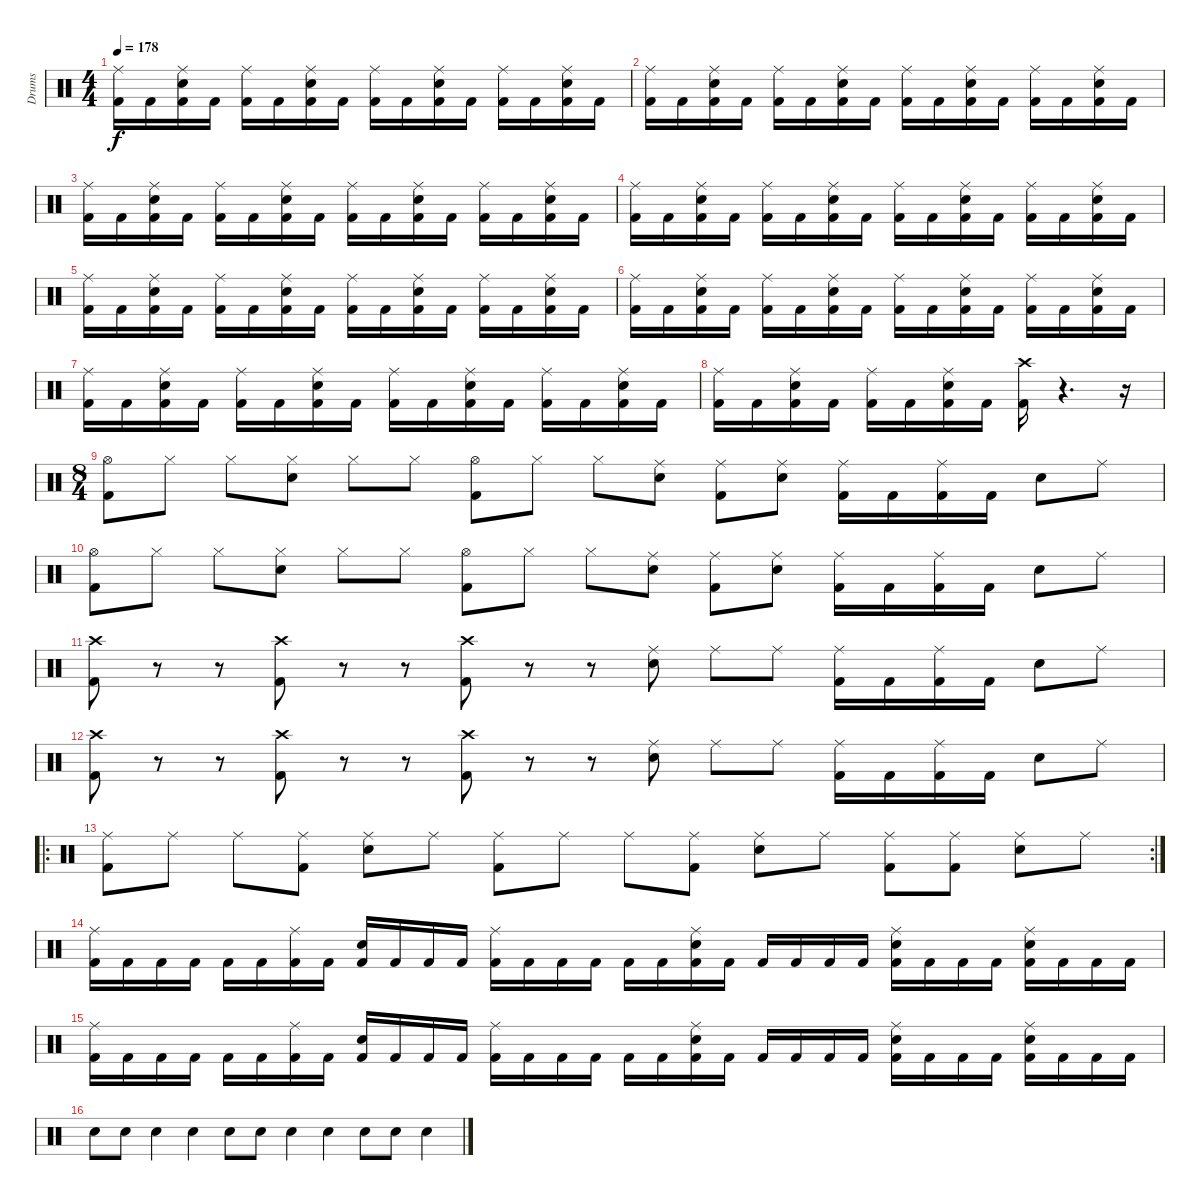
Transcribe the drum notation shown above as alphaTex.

\track ("Drums" "Drums") {instrument percussion}
\staff {score}
\articulation defaults
\ts (4 4)
\tempo 178
\clef neutral
\ks c
("Ride (middle)" "Kick (hit) 2").16{dy f} "Kick (hit) 2".16 ("Ride (middle)" "Snare (hit) 2" "Kick (hit) 2").16 "Kick (hit) 2".16 ("Ride (middle)" "Kick (hit) 2").16 "Kick (hit) 2".16 ("Ride (middle)" "Snare (hit) 2" "Kick (hit) 2").16 "Kick (hit) 2".16 ("Ride (middle)" "Kick (hit) 2").16 "Kick (hit) 2".16 ("Ride (middle)" "Snare (hit) 2" "Kick (hit) 2").16 "Kick (hit) 2".16 ("Ride (middle)" "Kick (hit) 2").16 "Kick (hit) 2".16 ("Ride (middle)" "Snare (hit) 2" "Kick (hit) 2").16 "Kick (hit) 2".16 |
("Ride (middle)" "Kick (hit) 2").16 "Kick (hit) 2".16 ("Ride (middle)" "Snare (hit) 2" "Kick (hit) 2").16 "Kick (hit) 2".16 ("Ride (middle)" "Kick (hit) 2").16 "Kick (hit) 2".16 ("Ride (middle)" "Snare (hit) 2" "Kick (hit) 2").16 "Kick (hit) 2".16 ("Ride (middle)" "Kick (hit) 2").16 "Kick (hit) 2".16 ("Ride (middle)" "Snare (hit) 2" "Kick (hit) 2").16 "Kick (hit) 2".16 ("Ride (middle)" "Kick (hit) 2").16 "Kick (hit) 2".16 ("Ride (middle)" "Snare (hit) 2" "Kick (hit) 2").16 "Kick (hit) 2".16 |
("Ride (middle)" "Kick (hit) 2").16 "Kick (hit) 2".16 ("Ride (middle)" "Snare (hit) 2" "Kick (hit) 2").16 "Kick (hit) 2".16 ("Ride (middle)" "Kick (hit) 2").16 "Kick (hit) 2".16 ("Ride (middle)" "Snare (hit) 2" "Kick (hit) 2").16 "Kick (hit) 2".16 ("Ride (middle)" "Kick (hit) 2").16 "Kick (hit) 2".16 ("Ride (middle)" "Snare (hit) 2" "Kick (hit) 2").16 "Kick (hit) 2".16 ("Ride (middle)" "Kick (hit) 2").16 "Kick (hit) 2".16 ("Ride (middle)" "Snare (hit) 2" "Kick (hit) 2").16 "Kick (hit) 2".16 |
("Ride (middle)" "Kick (hit) 2").16 "Kick (hit) 2".16 ("Ride (middle)" "Snare (hit) 2" "Kick (hit) 2").16 "Kick (hit) 2".16 ("Ride (middle)" "Kick (hit) 2").16 "Kick (hit) 2".16 ("Ride (middle)" "Snare (hit) 2" "Kick (hit) 2").16 "Kick (hit) 2".16 ("Ride (middle)" "Kick (hit) 2").16 "Kick (hit) 2".16 ("Ride (middle)" "Snare (hit) 2" "Kick (hit) 2").16 "Kick (hit) 2".16 ("Ride (middle)" "Kick (hit) 2").16 "Kick (hit) 2".16 ("Ride (middle)" "Snare (hit) 2" "Kick (hit) 2").16 "Kick (hit) 2".16 |
("Ride (middle)" "Kick (hit) 2").16 "Kick (hit) 2".16 ("Ride (middle)" "Snare (hit) 2" "Kick (hit) 2").16 "Kick (hit) 2".16 ("Ride (middle)" "Kick (hit) 2").16 "Kick (hit) 2".16 ("Ride (middle)" "Snare (hit) 2" "Kick (hit) 2").16 "Kick (hit) 2".16 ("Ride (middle)" "Kick (hit) 2").16 "Kick (hit) 2".16 ("Ride (middle)" "Snare (hit) 2" "Kick (hit) 2").16 "Kick (hit) 2".16 ("Ride (middle)" "Kick (hit) 2").16 "Kick (hit) 2".16 ("Ride (middle)" "Snare (hit) 2" "Kick (hit) 2").16 "Kick (hit) 2".16 |
("Ride (middle)" "Kick (hit) 2").16 "Kick (hit) 2".16 ("Ride (middle)" "Snare (hit) 2" "Kick (hit) 2").16 "Kick (hit) 2".16 ("Ride (middle)" "Kick (hit) 2").16 "Kick (hit) 2".16 ("Ride (middle)" "Snare (hit) 2" "Kick (hit) 2").16 "Kick (hit) 2".16 ("Ride (middle)" "Kick (hit) 2").16 "Kick (hit) 2".16 ("Ride (middle)" "Snare (hit) 2" "Kick (hit) 2").16 "Kick (hit) 2".16 ("Ride (middle)" "Kick (hit) 2").16 "Kick (hit) 2".16 ("Ride (middle)" "Snare (hit) 2" "Kick (hit) 2").16 "Kick (hit) 2".16 |
("Ride (middle)" "Kick (hit) 2").16 "Kick (hit) 2".16 ("Ride (middle)" "Snare (hit) 2" "Kick (hit) 2").16 "Kick (hit) 2".16 ("Ride (middle)" "Kick (hit) 2").16 "Kick (hit) 2".16 ("Ride (middle)" "Snare (hit) 2" "Kick (hit) 2").16 "Kick (hit) 2".16 ("Ride (middle)" "Kick (hit) 2").16 "Kick (hit) 2".16 ("Ride (middle)" "Snare (hit) 2" "Kick (hit) 2").16 "Kick (hit) 2".16 ("Ride (middle)" "Kick (hit) 2").16 "Kick (hit) 2".16 ("Ride (middle)" "Snare (hit) 2" "Kick (hit) 2").16 "Kick (hit) 2".16 |
("Ride (middle)" "Kick (hit) 2").16 "Kick (hit) 2".16 ("Ride (middle)" "Snare (hit) 2" "Kick (hit) 2").16 "Kick (hit) 2".16 ("Ride (middle)" "Kick (hit) 2").16 "Kick (hit) 2".16 ("Ride (middle)" "Snare (hit) 2" "Kick (hit) 2").16 "Kick (hit) 2".16 ("Crash high (hit)" "Kick (hit) 2").16 r.4{d} r.16 |
\ts (8 4)
("Hi-Hat (open)" "Kick (hit) 2").8 "Hi-Hat (closed)".8 "Hi-Hat (closed)".8 ("Hi-Hat (closed)" "Snare (hit) 2").8 "Hi-Hat (closed)".8 "Hi-Hat (closed)".8 ("Hi-Hat (open)" "Kick (hit) 2").8 "Hi-Hat (closed)".8 "Hi-Hat (closed)".8 ("Ride (middle)" "Snare (hit) 2").8 ("Ride (middle)" "Kick (hit) 2").8 ("Ride (middle)" "Snare (hit) 2").8 ("Ride (middle)" "Kick (hit) 2").16 "Kick (hit) 2".16 ("Ride (middle)" "Kick (hit) 2").16 "Kick (hit) 2".16 "Snare (hit) 2".8 "Ride (middle)".8 |
("Hi-Hat (open)" "Kick (hit) 2").8 "Hi-Hat (closed)".8 "Hi-Hat (closed)".8 ("Hi-Hat (closed)" "Snare (hit) 2").8 "Hi-Hat (closed)".8 "Hi-Hat (closed)".8 ("Hi-Hat (open)" "Kick (hit) 2").8 "Hi-Hat (closed)".8 "Hi-Hat (closed)".8 ("Ride (middle)" "Snare (hit) 2").8 ("Ride (middle)" "Kick (hit) 2").8 ("Ride (middle)" "Snare (hit) 2").8 ("Ride (middle)" "Kick (hit) 2").16 "Kick (hit) 2".16 ("Ride (middle)" "Kick (hit) 2").16 "Kick (hit) 2".16 "Snare (hit) 2".8 "Ride (middle)".8 |
("Crash high (hit)" "Kick (hit) 2").8 r.8 r.8 ("Crash high (hit)" "Kick (hit) 2").8 r.8 r.8 ("Crash high (hit)" "Kick (hit) 2").8 r.8 r.8 ("Ride (middle)" "Snare (hit) 2").8 "Ride (middle)".8 "Ride (middle)".8 ("Ride (middle)" "Kick (hit) 2").16 "Kick (hit) 2".16 ("Ride (middle)" "Kick (hit) 2").16 "Kick (hit) 2".16 "Snare (hit) 2".8 "Ride (middle)".8 |
("Crash high (hit)" "Kick (hit) 2").8 r.8 r.8 ("Crash high (hit)" "Kick (hit) 2").8 r.8 r.8 ("Crash high (hit)" "Kick (hit) 2").8 r.8 r.8 ("Ride (middle)" "Snare (hit) 2").8 "Ride (middle)".8 "Ride (middle)".8 ("Ride (middle)" "Kick (hit) 2").16 "Kick (hit) 2".16 ("Ride (middle)" "Kick (hit) 2").16 "Kick (hit) 2".16 "Snare (hit) 2".8 "Ride (middle)".8 |
\ro
\rc 2
("Ride (middle)" "Kick (hit) 2").8 "Ride (middle)".8 "Ride (middle)".8 ("Ride (middle)" "Kick (hit) 2").8 ("Ride (middle)" "Snare (hit) 2").8 "Ride (middle)".8 ("Ride (middle)" "Kick (hit) 2").8 "Ride (middle)".8 "Ride (middle)".8 ("Ride (middle)" "Kick (hit) 2").8 ("Ride (middle)" "Snare (hit) 2").8 "Ride (middle)".8 ("Ride (middle)" "Kick (hit) 2").8 ("Ride (middle)" "Kick (hit) 2").8 ("Ride (middle)" "Snare (hit) 2").8 "Ride (middle)".8 |
("Ride (middle)" "Kick (hit) 2").16 "Kick (hit) 2".16 "Kick (hit) 2".16 "Kick (hit) 2".16 "Kick (hit) 2".16 "Kick (hit) 2".16 ("Ride (middle)" "Kick (hit) 2").16 "Kick (hit) 2".16 ("Snare (hit) 2" "Kick (hit) 2").16 "Kick (hit) 2".16 "Kick (hit) 2".16 "Kick (hit) 2".16 ("Ride (middle)" "Kick (hit) 2").16 "Kick (hit) 2".16 "Kick (hit) 2".16 "Kick (hit) 2".16 "Kick (hit) 2".16 "Kick (hit) 2".16 ("Ride (middle)" "Snare (hit) 2" "Kick (hit) 2").16 "Kick (hit) 2".16 "Kick (hit) 2".16 "Kick (hit) 2".16 "Kick (hit) 2".16 "Kick (hit) 2".16 ("Ride (middle)" "Snare (hit) 2" "Kick (hit) 2").16 "Kick (hit) 2".16 "Kick (hit) 2".16 "Kick (hit) 2".16 ("Ride (middle)" "Snare (hit) 2" "Kick (hit) 2").16 "Kick (hit) 2".16 "Kick (hit) 2".16 "Kick (hit) 2".16 |
("Ride (middle)" "Kick (hit) 2").16 "Kick (hit) 2".16 "Kick (hit) 2".16 "Kick (hit) 2".16 "Kick (hit) 2".16 "Kick (hit) 2".16 ("Ride (middle)" "Kick (hit) 2").16 "Kick (hit) 2".16 ("Snare (hit) 2" "Kick (hit) 2").16 "Kick (hit) 2".16 "Kick (hit) 2".16 "Kick (hit) 2".16 ("Ride (middle)" "Kick (hit) 2").16 "Kick (hit) 2".16 "Kick (hit) 2".16 "Kick (hit) 2".16 "Kick (hit) 2".16 "Kick (hit) 2".16 ("Ride (middle)" "Snare (hit) 2" "Kick (hit) 2").16 "Kick (hit) 2".16 "Kick (hit) 2".16 "Kick (hit) 2".16 "Kick (hit) 2".16 "Kick (hit) 2".16 ("Ride (middle)" "Snare (hit) 2" "Kick (hit) 2").16 "Kick (hit) 2".16 "Kick (hit) 2".16 "Kick (hit) 2".16 ("Ride (middle)" "Snare (hit) 2" "Kick (hit) 2").16 "Kick (hit) 2".16 "Kick (hit) 2".16 "Kick (hit) 2".16 |
"Snare (hit) 2".8 "Snare (hit) 2".8 "Snare (hit) 2".4 "Snare (hit) 2".4 "Snare (hit) 2".8 "Snare (hit) 2".8 "Snare (hit) 2".4 "Snare (hit) 2".4 "Snare (hit) 2".8 "Snare (hit) 2".8 "Snare (hit) 2".4
